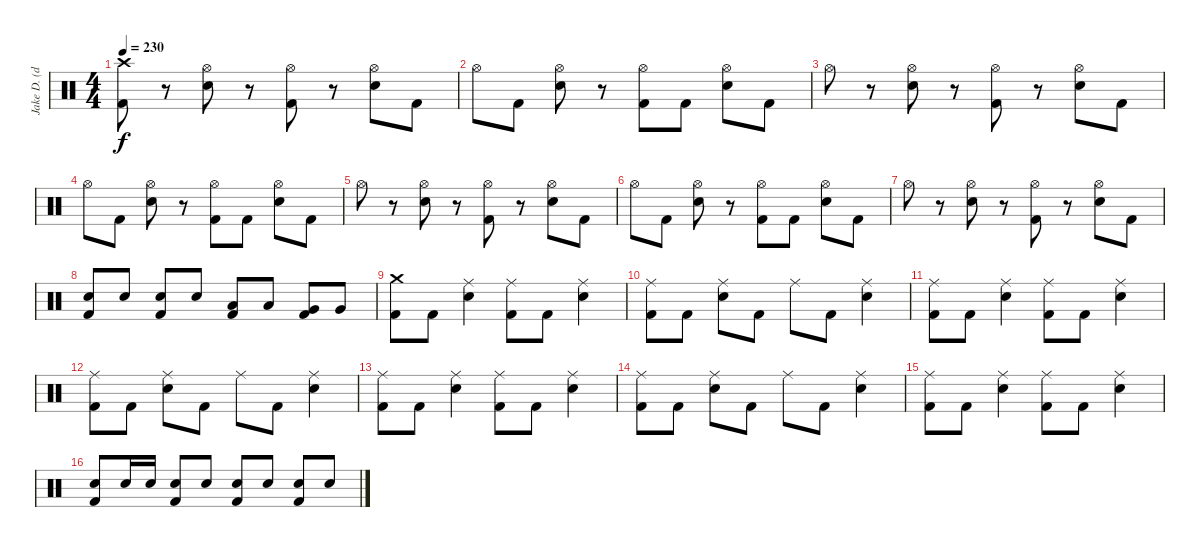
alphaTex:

\track ("Jake D. (drums)" "Jake D. (d") {instrument percussion}
\staff {score}
\articulation defaults
\ts (4 4)
\tempo 230
\clef neutral
\ks c
("Crash high (hit)" "Kick (hit) 2").8{dy f} r.8 ("Hi-Hat (open)" "Electric Snare (hit)").8 r.8 ("Hi-Hat (open)" "Kick (hit) 2").8 r.8 ("Hi-Hat (open)" "Electric Snare (hit)").8 "Kick (hit) 2".8 |
"Hi-Hat (open)".8 "Kick (hit) 2".8 ("Hi-Hat (open)" "Electric Snare (hit)").8 r.8 ("Hi-Hat (open)" "Kick (hit) 2").8 "Kick (hit) 2".8 ("Hi-Hat (open)" "Electric Snare (hit)").8 "Kick (hit) 2".8 |
"Hi-Hat (open)".8 r.8 ("Hi-Hat (open)" "Electric Snare (hit)").8 r.8 ("Hi-Hat (open)" "Kick (hit) 2").8 r.8 ("Hi-Hat (open)" "Electric Snare (hit)").8 "Kick (hit) 2".8 |
"Hi-Hat (open)".8 "Kick (hit) 2".8 ("Hi-Hat (open)" "Electric Snare (hit)").8 r.8 ("Hi-Hat (open)" "Kick (hit) 2").8 "Kick (hit) 2".8 ("Hi-Hat (open)" "Electric Snare (hit)").8 "Kick (hit) 2".8 |
"Hi-Hat (open)".8 r.8 ("Hi-Hat (open)" "Electric Snare (hit)").8 r.8 ("Hi-Hat (open)" "Kick (hit) 2").8 r.8 ("Hi-Hat (open)" "Electric Snare (hit)").8 "Kick (hit) 2".8 |
"Hi-Hat (open)".8 "Kick (hit) 2".8 ("Hi-Hat (open)" "Electric Snare (hit)").8 r.8 ("Hi-Hat (open)" "Kick (hit) 2").8 "Kick (hit) 2".8 ("Hi-Hat (open)" "Electric Snare (hit)").8 "Kick (hit) 2".8 |
"Hi-Hat (open)".8 r.8 ("Hi-Hat (open)" "Electric Snare (hit)").8 r.8 ("Hi-Hat (open)" "Kick (hit) 2").8 r.8 ("Hi-Hat (open)" "Electric Snare (hit)").8 "Kick (hit) 2".8 |
("Electric Snare (hit)" "Kick (hit) 2").8 "Electric Snare (hit)".8 ("Electric Snare (hit)" "Kick (hit) 2").8 "Electric Snare (hit)".8 ("Low Tom (hit)" "Kick (hit) 2").8 "Low Tom (hit)".8 ("Very Low Tom (hit)" "Kick (hit) 2").8 "Very Low Tom (hit)".8 |
("Crash medium (hit)" "Kick (hit) 2").8 "Kick (hit) 2".8 ("Ride (middle)" "Electric Snare (hit)").4 ("Ride (middle)" "Kick (hit) 2").8 "Kick (hit) 2".8 ("Ride (middle)" "Electric Snare (hit)").4 |
("Ride (middle)" "Kick (hit) 2").8 "Kick (hit) 2".8 ("Ride (middle)" "Electric Snare (hit)").8 "Kick (hit) 2".8 "Ride (middle)".8 "Kick (hit) 2".8 ("Ride (middle)" "Electric Snare (hit)").4 |
("Ride (middle)" "Kick (hit) 2").8 "Kick (hit) 2".8 ("Ride (middle)" "Electric Snare (hit)").4 ("Ride (middle)" "Kick (hit) 2").8 "Kick (hit) 2".8 ("Ride (middle)" "Electric Snare (hit)").4 |
("Ride (middle)" "Kick (hit) 2").8 "Kick (hit) 2".8 ("Ride (middle)" "Electric Snare (hit)").8 "Kick (hit) 2".8 "Ride (middle)".8 "Kick (hit) 2".8 ("Ride (middle)" "Electric Snare (hit)").4 |
("Ride (middle)" "Kick (hit) 2").8 "Kick (hit) 2".8 ("Ride (middle)" "Electric Snare (hit)").4 ("Ride (middle)" "Kick (hit) 2").8 "Kick (hit) 2".8 ("Ride (middle)" "Electric Snare (hit)").4 |
("Ride (middle)" "Kick (hit) 2").8 "Kick (hit) 2".8 ("Ride (middle)" "Electric Snare (hit)").8 "Kick (hit) 2".8 "Ride (middle)".8 "Kick (hit) 2".8 ("Ride (middle)" "Electric Snare (hit)").4 |
("Ride (middle)" "Kick (hit) 2").8 "Kick (hit) 2".8 ("Ride (middle)" "Electric Snare (hit)").4 ("Ride (middle)" "Kick (hit) 2").8 "Kick (hit) 2".8 ("Ride (middle)" "Electric Snare (hit)").4 |
("Electric Snare (hit)" "Kick (hit) 2").8 "Electric Snare (hit)".16 "Electric Snare (hit)".16 ("Electric Snare (hit)" "Kick (hit) 2").8 "Electric Snare (hit)".8 ("Electric Snare (hit)" "Kick (hit) 2").8 "Electric Snare (hit)".8 ("Electric Snare (hit)" "Kick (hit) 2").8 "Electric Snare (hit)".8
